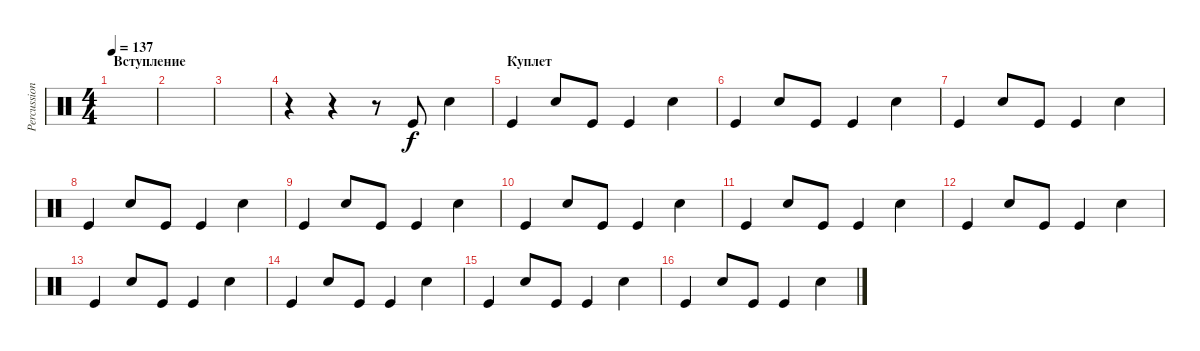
\track ("Percussion" "Percussion") {instrument percussion}
\staff {score}
\articulation defaults
\ts (4 4)
\section ("" "Вступление")
\tempo 137
\clef neutral
\ks c
|
|
|
r.4 r.4 r.8 "Kick (hit)".8 "Snare (hit) 2".4 |
\section ("" "Куплет")
"Kick (hit)".4 "Snare (hit) 2".8 "Kick (hit)".8 "Kick (hit)".4 "Snare (hit) 2".4 |
"Kick (hit)".4 "Snare (hit) 2".8 "Kick (hit)".8 "Kick (hit)".4 "Snare (hit) 2".4 |
"Kick (hit)".4 "Snare (hit) 2".8 "Kick (hit)".8 "Kick (hit)".4 "Snare (hit) 2".4 |
"Kick (hit)".4 "Snare (hit) 2".8 "Kick (hit)".8 "Kick (hit)".4 "Snare (hit) 2".4 |
"Kick (hit)".4 "Snare (hit) 2".8 "Kick (hit)".8 "Kick (hit)".4 "Snare (hit) 2".4 |
"Kick (hit)".4 "Snare (hit) 2".8 "Kick (hit)".8 "Kick (hit)".4 "Snare (hit) 2".4 |
"Kick (hit)".4 "Snare (hit) 2".8 "Kick (hit)".8 "Kick (hit)".4 "Snare (hit) 2".4 |
"Kick (hit)".4 "Snare (hit) 2".8 "Kick (hit)".8 "Kick (hit)".4 "Snare (hit) 2".4 |
"Kick (hit)".4 "Snare (hit) 2".8 "Kick (hit)".8 "Kick (hit)".4 "Snare (hit) 2".4 |
"Kick (hit)".4 "Snare (hit) 2".8 "Kick (hit)".8 "Kick (hit)".4 "Snare (hit) 2".4 |
"Kick (hit)".4 "Snare (hit) 2".8 "Kick (hit)".8 "Kick (hit)".4 "Snare (hit) 2".4 |
"Kick (hit)".4 "Snare (hit) 2".8 "Kick (hit)".8 "Kick (hit)".4 "Snare (hit) 2".4
